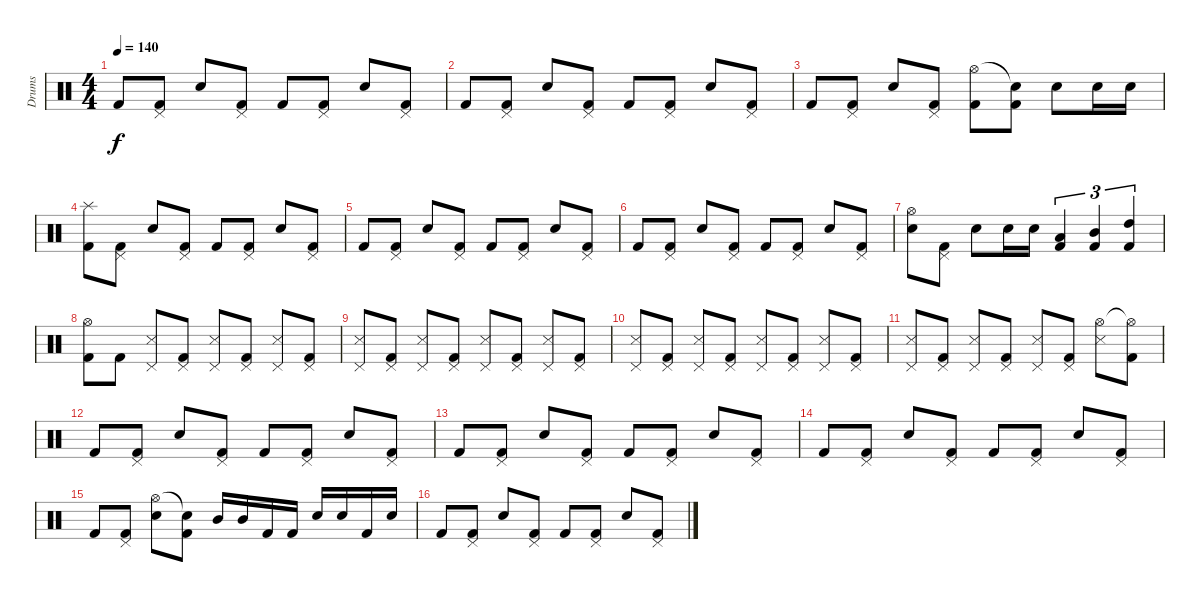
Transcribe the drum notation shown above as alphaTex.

\track ("Drums" "Drums") {instrument percussion}
\staff {score}
\articulation defaults
\ts (4 4)
\tempo 140
\clef neutral
\ks c "Kick (hit) 2".8{dy f}
("Pedal Hi-Hat (hit)" "Kick (hit) 2").8 "Electric Snare (hit)".8 ("Pedal Hi-Hat (hit)" "Kick (hit) 2").8 "Kick (hit) 2".8 ("Pedal Hi-Hat (hit)" "Kick (hit) 2").8 "Electric Snare (hit)".8 ("Pedal Hi-Hat (hit)" "Kick (hit) 2").8 |
"Kick (hit) 2".8 ("Pedal Hi-Hat (hit)" "Kick (hit) 2").8 "Electric Snare (hit)".8 ("Pedal Hi-Hat (hit)" "Kick (hit) 2").8 "Kick (hit) 2".8 ("Pedal Hi-Hat (hit)" "Kick (hit) 2").8 "Electric Snare (hit)".8 ("Pedal Hi-Hat (hit)" "Kick (hit) 2").8 |
"Kick (hit) 2".8 ("Pedal Hi-Hat (hit)" "Kick (hit) 2").8 "Electric Snare (hit)".8 ("Pedal Hi-Hat (hit)" "Kick (hit) 2").8 ("Hi-Hat (open)" "Kick (hit) 2").8 ("Snare (hit)"{t} "Kick (hit) 2").8 "Electric Snare (hit)".8 "Electric Snare (hit)".16 "Electric Snare (hit)".16 |
("Splash (hit)" "Kick (hit) 2").8 ("Pedal Hi-Hat (hit)" "Kick (hit) 2").8 "Electric Snare (hit)".8 ("Pedal Hi-Hat (hit)" "Kick (hit) 2").8 "Kick (hit) 2".8 ("Pedal Hi-Hat (hit)" "Kick (hit) 2").8 "Electric Snare (hit)".8 ("Pedal Hi-Hat (hit)" "Kick (hit) 2").8 |
"Kick (hit) 2".8 ("Pedal Hi-Hat (hit)" "Kick (hit) 2").8 "Electric Snare (hit)".8 ("Pedal Hi-Hat (hit)" "Kick (hit) 2").8 "Kick (hit) 2".8 ("Pedal Hi-Hat (hit)" "Kick (hit) 2").8 "Electric Snare (hit)".8 ("Pedal Hi-Hat (hit)" "Kick (hit) 2").8 |
"Kick (hit) 2".8 ("Pedal Hi-Hat (hit)" "Kick (hit) 2").8 "Electric Snare (hit)".8 ("Pedal Hi-Hat (hit)" "Kick (hit) 2").8 "Kick (hit) 2".8 ("Pedal Hi-Hat (hit)" "Kick (hit) 2").8 "Electric Snare (hit)".8 ("Pedal Hi-Hat (hit)" "Kick (hit) 2").8 |
("Hi-Hat (open)" "Electric Snare (hit)").8 ("Pedal Hi-Hat (hit)" "Kick (hit) 2").8 "Electric Snare (hit)".8 "Electric Snare (hit)".16 "Electric Snare (hit)".16 ("Low Tom (hit)" "Kick (hit) 2").4{tu (3 2)} ("Mid Tom (hit)" "Kick (hit) 2").4{tu (3 2)} ("High Tom (hit)" "Kick (hit) 2").4{tu (3 2)} |
("Hi-Hat (open)" "Kick (hit) 2").8 "Kick (hit) 2".8 ("Pedal Hi-Hat (hit)" "Snare (side stick) 3").8 ("Pedal Hi-Hat (hit)" "Kick (hit) 2").8 ("Pedal Hi-Hat (hit)" "Snare (side stick) 3").8 ("Pedal Hi-Hat (hit)" "Kick (hit) 2").8 ("Pedal Hi-Hat (hit)" "Snare (side stick) 3").8 ("Pedal Hi-Hat (hit)" "Kick (hit) 2").8 |
("Pedal Hi-Hat (hit)" "Snare (side stick) 3").8 ("Pedal Hi-Hat (hit)" "Kick (hit) 2").8 ("Pedal Hi-Hat (hit)" "Snare (side stick) 3").8 ("Pedal Hi-Hat (hit)" "Kick (hit) 2").8 ("Pedal Hi-Hat (hit)" "Snare (side stick) 3").8 ("Pedal Hi-Hat (hit)" "Kick (hit) 2").8 ("Pedal Hi-Hat (hit)" "Snare (side stick) 3").8 ("Pedal Hi-Hat (hit)" "Kick (hit) 2").8 |
("Pedal Hi-Hat (hit)" "Snare (side stick) 3").8 ("Pedal Hi-Hat (hit)" "Kick (hit) 2").8 ("Pedal Hi-Hat (hit)" "Snare (side stick) 3").8 ("Pedal Hi-Hat (hit)" "Kick (hit) 2").8 ("Pedal Hi-Hat (hit)" "Snare (side stick) 3").8 ("Pedal Hi-Hat (hit)" "Kick (hit) 2").8 ("Pedal Hi-Hat (hit)" "Snare (side stick) 3").8 ("Pedal Hi-Hat (hit)" "Kick (hit) 2").8 |
("Pedal Hi-Hat (hit)" "Snare (side stick) 3").8 ("Pedal Hi-Hat (hit)" "Kick (hit) 2").8 ("Pedal Hi-Hat (hit)" "Snare (side stick) 3").8 ("Pedal Hi-Hat (hit)" "Kick (hit) 2").8 ("Pedal Hi-Hat (hit)" "Snare (side stick) 3").8 ("Pedal Hi-Hat (hit)" "Kick (hit) 2").8 ("Hi-Hat (open)" "Snare (side stick) 3").8 ("Hi-Hat (open)"{t} "Kick (hit) 2").8 |
"Kick (hit) 2".8 ("Pedal Hi-Hat (hit)" "Kick (hit) 2").8 "Electric Snare (hit)".8 ("Pedal Hi-Hat (hit)" "Kick (hit) 2").8 "Kick (hit) 2".8 ("Pedal Hi-Hat (hit)" "Kick (hit) 2").8 "Electric Snare (hit)".8 ("Pedal Hi-Hat (hit)" "Kick (hit) 2").8 |
"Kick (hit) 2".8 ("Pedal Hi-Hat (hit)" "Kick (hit) 2").8 "Electric Snare (hit)".8 ("Pedal Hi-Hat (hit)" "Kick (hit) 2").8 "Kick (hit) 2".8 ("Pedal Hi-Hat (hit)" "Kick (hit) 2").8 "Electric Snare (hit)".8 ("Pedal Hi-Hat (hit)" "Kick (hit) 2").8 |
"Kick (hit) 2".8 ("Pedal Hi-Hat (hit)" "Kick (hit) 2").8 "Electric Snare (hit)".8 ("Pedal Hi-Hat (hit)" "Kick (hit) 2").8 "Kick (hit) 2".8 ("Pedal Hi-Hat (hit)" "Kick (hit) 2").8 "Electric Snare (hit)".8 ("Pedal Hi-Hat (hit)" "Kick (hit) 2").8 |
"Kick (hit) 2".8 ("Pedal Hi-Hat (hit)" "Kick (hit) 2").8 ("Hi-Hat (open)" "Electric Snare (hit)").8 ("Snare (hit)"{t} "Kick (hit) 2").8 "Mid Tom (hit)".16 "Mid Tom (hit)".16 "Kick (hit) 2".16 "Kick (hit) 2".16 "Electric Snare (hit)".16 "Electric Snare (hit)".16 "Kick (hit) 2".16 "Electric Snare (hit)".16 |
"Kick (hit) 2".8 ("Pedal Hi-Hat (hit)" "Kick (hit) 2").8 "Electric Snare (hit)".8 ("Pedal Hi-Hat (hit)" "Kick (hit) 2").8 "Kick (hit) 2".8 ("Pedal Hi-Hat (hit)" "Kick (hit) 2").8 "Electric Snare (hit)".8 ("Pedal Hi-Hat (hit)" "Kick (hit) 2").8
